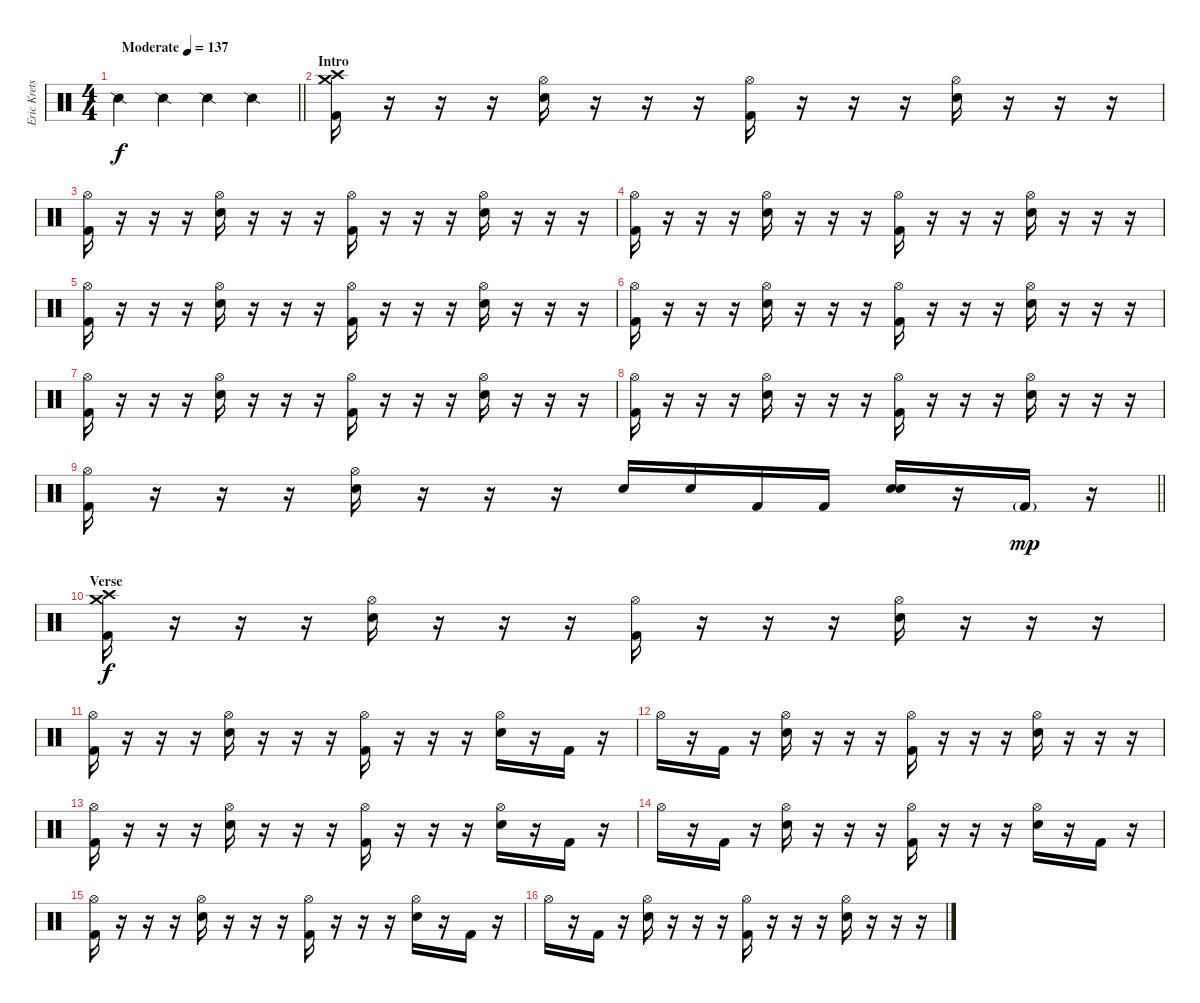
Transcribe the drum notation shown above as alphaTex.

\track ("Eric Krets" "Eric Krets") {instrument percussion}
\staff {score}
\articulation defaults
\ts (4 4)
\tempo (137 "Moderate")
\clef neutral
\barLineRight lightlight
\ks c "Snare (side stick) 2".4{dy f volume 10} "Snare (side stick) 2".4 "Snare (side stick) 2".4 "Snare (side stick) 2".4
|
\section ("" "Intro")
("Crash high (hit)" "Crash medium (hit)" "Kick (hit) 2").16{volume 16} r.16 r.16 r.16 ("Hi-Hat (open)" "Electric Snare (hit)").16 r.16 r.16 r.16 ("Hi-Hat (open)" "Kick (hit) 2").16 r.16 r.16 r.16 ("Hi-Hat (open)" "Electric Snare (hit)").16 r.16 r.16 r.16 |
("Hi-Hat (open)" "Kick (hit) 2").16 r.16 r.16 r.16 ("Hi-Hat (open)" "Electric Snare (hit)").16 r.16 r.16 r.16 ("Hi-Hat (open)" "Kick (hit) 2").16 r.16 r.16 r.16 ("Hi-Hat (open)" "Electric Snare (hit)").16 r.16 r.16 r.16 |
("Hi-Hat (open)" "Kick (hit) 2").16 r.16 r.16 r.16 ("Hi-Hat (open)" "Electric Snare (hit)").16 r.16 r.16 r.16 ("Hi-Hat (open)" "Kick (hit) 2").16 r.16 r.16 r.16 ("Hi-Hat (open)" "Electric Snare (hit)").16 r.16 r.16 r.16 |
("Hi-Hat (open)" "Kick (hit) 2").16 r.16 r.16 r.16 ("Hi-Hat (open)" "Electric Snare (hit)").16 r.16 r.16 r.16 ("Hi-Hat (open)" "Kick (hit) 2").16 r.16 r.16 r.16 ("Hi-Hat (open)" "Electric Snare (hit)").16 r.16 r.16 r.16 |
("Hi-Hat (open)" "Kick (hit) 2").16 r.16 r.16 r.16 ("Hi-Hat (open)" "Electric Snare (hit)").16 r.16 r.16 r.16 ("Hi-Hat (open)" "Kick (hit) 2").16 r.16 r.16 r.16 ("Hi-Hat (open)" "Electric Snare (hit)").16 r.16 r.16 r.16 |
("Hi-Hat (open)" "Kick (hit) 2").16 r.16 r.16 r.16 ("Hi-Hat (open)" "Electric Snare (hit)").16 r.16 r.16 r.16 ("Hi-Hat (open)" "Kick (hit) 2").16 r.16 r.16 r.16 ("Hi-Hat (open)" "Electric Snare (hit)").16 r.16 r.16 r.16 |
("Hi-Hat (open)" "Kick (hit) 2").16 r.16 r.16 r.16 ("Hi-Hat (open)" "Electric Snare (hit)").16 r.16 r.16 r.16 ("Hi-Hat (open)" "Kick (hit) 2").16 r.16 r.16 r.16 ("Hi-Hat (open)" "Electric Snare (hit)").16 r.16 r.16 r.16 |
\barLineRight lightlight
("Hi-Hat (open)" "Kick (hit) 2").16 r.16 r.16 r.16 ("Hi-Hat (open)" "Electric Snare (hit)").16 r.16 r.16 r.16 "Electric Snare (hit)".16 "Electric Snare (hit)".16 "Kick (hit) 2".16 "Kick (hit) 2".16 ("Electric Snare (hit)" "Electric Snare (hit)").16 r.16 "Kick (hit) 2"{g}.16{dy mp} r.16 |
\section ("" "Verse")
("Crash high (hit)" "Crash medium (hit)" "Kick (hit) 2").16{dy f} r.16 r.16 r.16 ("Hi-Hat (open)" "Electric Snare (hit)").16 r.16 r.16 r.16 ("Hi-Hat (open)" "Kick (hit) 2").16 r.16 r.16 r.16 ("Hi-Hat (open)" "Electric Snare (hit)").16 r.16 r.16 r.16 |
("Hi-Hat (open)" "Kick (hit) 2").16 r.16 r.16 r.16 ("Hi-Hat (open)" "Electric Snare (hit)").16 r.16 r.16 r.16 ("Hi-Hat (open)" "Kick (hit) 2").16 r.16 r.16 r.16 ("Hi-Hat (open)" "Electric Snare (hit)").16 r.16 "Kick (hit) 2".16 r.16 |
"Hi-Hat (open)".16 r.16 "Kick (hit) 2".16 r.16 ("Hi-Hat (open)" "Electric Snare (hit)").16 r.16 r.16 r.16 ("Hi-Hat (open)" "Kick (hit) 2").16 r.16 r.16 r.16 ("Hi-Hat (open)" "Electric Snare (hit)").16 r.16 r.16 r.16 |
("Hi-Hat (open)" "Kick (hit) 2").16 r.16 r.16 r.16 ("Hi-Hat (open)" "Electric Snare (hit)").16 r.16 r.16 r.16 ("Hi-Hat (open)" "Kick (hit) 2").16 r.16 r.16 r.16 ("Hi-Hat (open)" "Electric Snare (hit)").16 r.16 "Kick (hit) 2".16 r.16 |
"Hi-Hat (open)".16 r.16 "Kick (hit) 2".16 r.16 ("Hi-Hat (open)" "Electric Snare (hit)").16 r.16 r.16 r.16 ("Hi-Hat (open)" "Kick (hit) 2").16 r.16 r.16 r.16 ("Hi-Hat (open)" "Electric Snare (hit)").16 r.16 "Kick (hit) 2".16 r.16 |
("Hi-Hat (open)" "Kick (hit) 2").16 r.16 r.16 r.16 ("Hi-Hat (open)" "Electric Snare (hit)").16 r.16 r.16 r.16 ("Hi-Hat (open)" "Kick (hit) 2").16 r.16 r.16 r.16 ("Hi-Hat (open)" "Electric Snare (hit)").16 r.16 "Kick (hit) 2".16 r.16 |
"Hi-Hat (open)".16 r.16 "Kick (hit) 2".16 r.16 ("Hi-Hat (open)" "Electric Snare (hit)").16 r.16 r.16 r.16 ("Hi-Hat (open)" "Kick (hit) 2").16 r.16 r.16 r.16 ("Hi-Hat (open)" "Electric Snare (hit)").16 r.16 r.16 r.16
